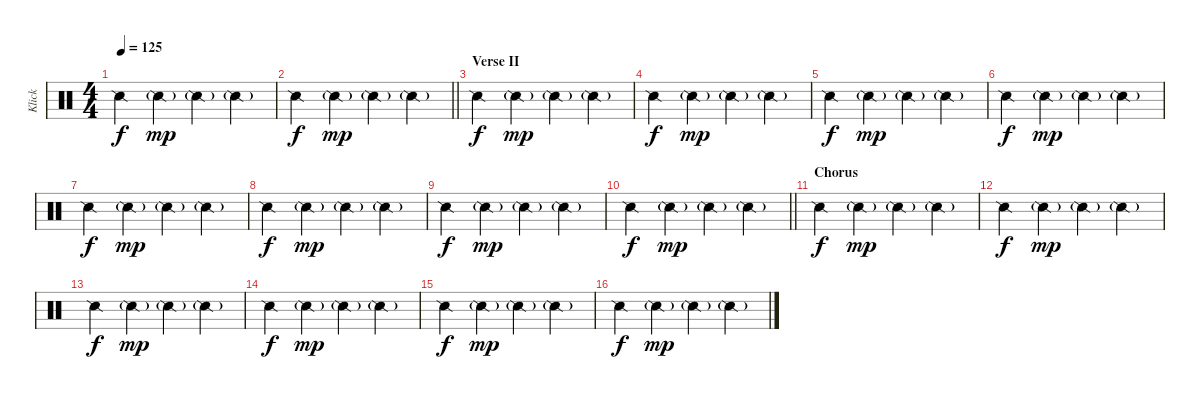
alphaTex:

\track ("Klick" "Klick") {instrument percussion}
\staff {score}
\articulation defaults
\ts (4 4)
\tempo 125
\clef neutral
\ks c "Snare (side stick) 2".4{dy f} "Snare (side stick) 2"{g}.4{dy mp} "Snare (side stick) 2"{g}.4 "Snare (side stick) 2"{g}.4
|
\barLineRight lightlight "Snare (side stick) 2".4{dy f} "Snare (side stick) 2"{g}.4{dy mp} "Snare (side stick) 2"{g}.4 "Snare (side stick) 2"{g}.4
|
\section ("" "Verse II")
"Snare (side stick) 2".4{dy f} "Snare (side stick) 2"{g}.4{dy mp} "Snare (side stick) 2"{g}.4 "Snare (side stick) 2"{g}.4 |
"Snare (side stick) 2".4{dy f} "Snare (side stick) 2"{g}.4{dy mp} "Snare (side stick) 2"{g}.4 "Snare (side stick) 2"{g}.4 |
"Snare (side stick) 2".4{dy f} "Snare (side stick) 2"{g}.4{dy mp} "Snare (side stick) 2"{g}.4 "Snare (side stick) 2"{g}.4 |
"Snare (side stick) 2".4{dy f} "Snare (side stick) 2"{g}.4{dy mp} "Snare (side stick) 2"{g}.4 "Snare (side stick) 2"{g}.4 |
"Snare (side stick) 2".4{dy f} "Snare (side stick) 2"{g}.4{dy mp} "Snare (side stick) 2"{g}.4 "Snare (side stick) 2"{g}.4 |
"Snare (side stick) 2".4{dy f} "Snare (side stick) 2"{g}.4{dy mp} "Snare (side stick) 2"{g}.4 "Snare (side stick) 2"{g}.4 |
"Snare (side stick) 2".4{dy f} "Snare (side stick) 2"{g}.4{dy mp} "Snare (side stick) 2"{g}.4 "Snare (side stick) 2"{g}.4 |
\barLineRight lightlight "Snare (side stick) 2".4{dy f} "Snare (side stick) 2"{g}.4{dy mp} "Snare (side stick) 2"{g}.4 "Snare (side stick) 2"{g}.4
|
\section ("" "Chorus")
"Snare (side stick) 2".4{dy f} "Snare (side stick) 2"{g}.4{dy mp} "Snare (side stick) 2"{g}.4 "Snare (side stick) 2"{g}.4 |
"Snare (side stick) 2".4{dy f} "Snare (side stick) 2"{g}.4{dy mp} "Snare (side stick) 2"{g}.4 "Snare (side stick) 2"{g}.4 |
"Snare (side stick) 2".4{dy f} "Snare (side stick) 2"{g}.4{dy mp} "Snare (side stick) 2"{g}.4 "Snare (side stick) 2"{g}.4 |
"Snare (side stick) 2".4{dy f} "Snare (side stick) 2"{g}.4{dy mp} "Snare (side stick) 2"{g}.4 "Snare (side stick) 2"{g}.4 |
"Snare (side stick) 2".4{dy f} "Snare (side stick) 2"{g}.4{dy mp} "Snare (side stick) 2"{g}.4 "Snare (side stick) 2"{g}.4 |
"Snare (side stick) 2".4{dy f} "Snare (side stick) 2"{g}.4{dy mp} "Snare (side stick) 2"{g}.4 "Snare (side stick) 2"{g}.4
